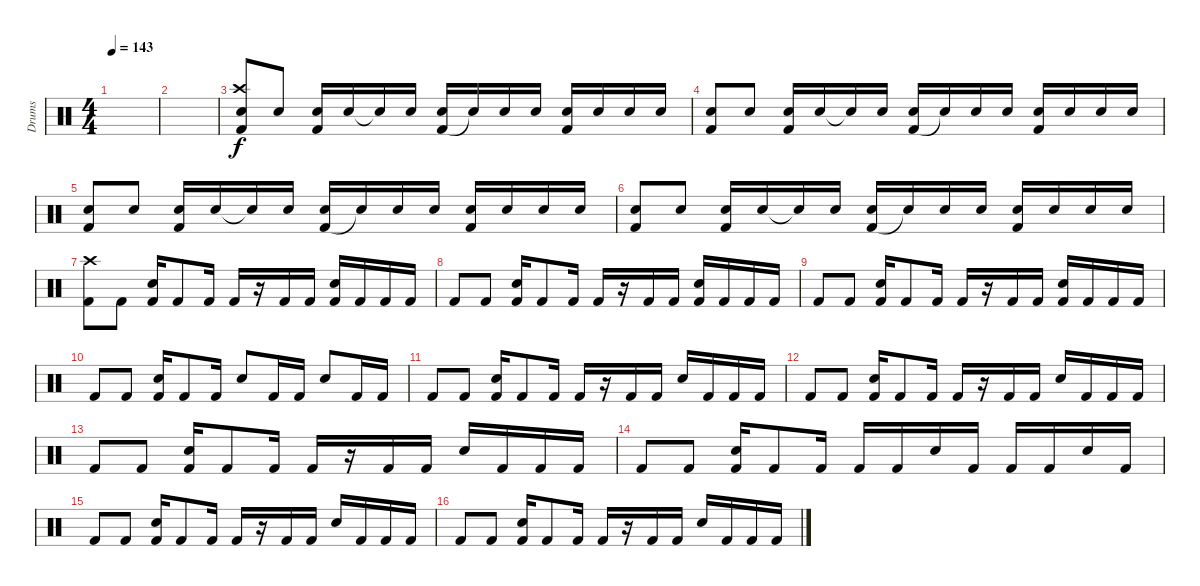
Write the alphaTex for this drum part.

\track ("Drums" "Drums") {instrument percussion}
\staff {score}
\articulation defaults
\ts (4 4)
\tempo 143
\clef neutral
\ks c
|
|
("Kick (hit) 2" "Crash high (hit)" "Snare (hit) 2").8 "Snare (hit) 2".8 ("Kick (hit) 2" "Snare (hit) 2").16 "Snare (hit) 2".16 "Snare (hit) 2"{t}.16 "Snare (hit) 2".16 ("Kick (hit) 2" "Snare (hit) 2").16 "Snare (hit)"{t}.16 "Snare (hit) 2".16 "Snare (hit) 2".16 ("Kick (hit) 2" "Snare (hit) 2").16 "Snare (hit) 2".16 "Snare (hit) 2".16 "Snare (hit) 2".16 |
("Kick (hit) 2" "Snare (hit) 2").8 "Snare (hit) 2".8 ("Kick (hit) 2" "Snare (hit) 2").16 "Snare (hit) 2".16 "Snare (hit) 2"{t}.16 "Snare (hit) 2".16 ("Kick (hit) 2" "Snare (hit) 2").16 "Snare (hit)"{t}.16 "Snare (hit) 2".16 "Snare (hit) 2".16 ("Kick (hit) 2" "Snare (hit) 2").16 "Snare (hit) 2".16 "Snare (hit) 2".16 "Snare (hit) 2".16 |
("Kick (hit) 2" "Snare (hit) 2").8 "Snare (hit) 2".8 ("Kick (hit) 2" "Snare (hit) 2").16 "Snare (hit) 2".16 "Snare (hit) 2"{t}.16 "Snare (hit) 2".16 ("Kick (hit) 2" "Snare (hit) 2").16 "Snare (hit)"{t}.16 "Snare (hit) 2".16 "Snare (hit) 2".16 ("Kick (hit) 2" "Snare (hit) 2").16 "Snare (hit) 2".16 "Snare (hit) 2".16 "Snare (hit) 2".16 |
("Kick (hit) 2" "Snare (hit) 2").8 "Snare (hit) 2".8 ("Kick (hit) 2" "Snare (hit) 2").16 "Snare (hit) 2".16 "Snare (hit) 2"{t}.16 "Snare (hit) 2".16 ("Kick (hit) 2" "Snare (hit) 2").16 "Snare (hit)"{t}.16 "Snare (hit) 2".16 "Snare (hit) 2".16 ("Kick (hit) 2" "Snare (hit) 2").16 "Snare (hit) 2".16 "Snare (hit) 2".16 "Snare (hit) 2".16 |
("Kick (hit) 2" "Crash high (hit)").8 "Kick (hit) 2".8 ("Kick (hit) 2" "Snare (hit) 2").16 "Kick (hit) 2".8 "Kick (hit) 2".16 "Kick (hit) 2".16 r.16 "Kick (hit) 2".16 "Kick (hit) 2".16 ("Kick (hit) 2" "Snare (hit) 2").16 "Kick (hit) 2".16 "Kick (hit) 2".16 "Kick (hit) 2".16 |
"Kick (hit) 2".8 "Kick (hit) 2".8 ("Kick (hit) 2" "Snare (hit) 2").16 "Kick (hit) 2".8 "Kick (hit) 2".16 "Kick (hit) 2".16 r.16 "Kick (hit) 2".16 "Kick (hit) 2".16 ("Kick (hit) 2" "Snare (hit) 2").16 "Kick (hit) 2".16 "Kick (hit) 2".16 "Kick (hit) 2".16 |
"Kick (hit) 2".8 "Kick (hit) 2".8 ("Kick (hit) 2" "Snare (hit) 2").16 "Kick (hit) 2".8 "Kick (hit) 2".16 "Kick (hit) 2".16 r.16 "Kick (hit) 2".16 "Kick (hit) 2".16 ("Kick (hit) 2" "Snare (hit) 2").16 "Kick (hit) 2".16 "Kick (hit) 2".16 "Kick (hit) 2".16 |
"Kick (hit) 2".8 "Kick (hit) 2".8 ("Kick (hit) 2" "Snare (hit) 2").16 "Kick (hit) 2".8 "Kick (hit) 2".16 "Snare (hit) 2".8 "Kick (hit) 2".16 "Kick (hit) 2".16 "Snare (hit) 2".8 "Kick (hit) 2".16 "Kick (hit) 2".16 |
"Kick (hit) 2".8 "Kick (hit) 2".8 ("Kick (hit) 2" "Snare (hit) 2").16 "Kick (hit) 2".8 "Kick (hit) 2".16 "Kick (hit) 2".16 r.16 "Kick (hit) 2".16 "Kick (hit) 2".16 "Snare (hit) 2".16 "Kick (hit) 2".16 "Kick (hit) 2".16 "Kick (hit) 2".16 |
"Kick (hit) 2".8 "Kick (hit) 2".8 ("Kick (hit) 2" "Snare (hit) 2").16 "Kick (hit) 2".8 "Kick (hit) 2".16 "Kick (hit) 2".16 r.16 "Kick (hit) 2".16 "Kick (hit) 2".16 "Snare (hit) 2".16 "Kick (hit) 2".16 "Kick (hit) 2".16 "Kick (hit) 2".16 |
"Kick (hit) 2".8 "Kick (hit) 2".8 ("Kick (hit) 2" "Snare (hit) 2").16 "Kick (hit) 2".8 "Kick (hit) 2".16 "Kick (hit) 2".16 r.16 "Kick (hit) 2".16 "Kick (hit) 2".16 "Snare (hit) 2".16 "Kick (hit) 2".16 "Kick (hit) 2".16 "Kick (hit) 2".16 |
"Kick (hit) 2".8 "Kick (hit) 2".8 ("Kick (hit) 2" "Snare (hit) 2").16 "Kick (hit) 2".8 "Kick (hit) 2".16 "Kick (hit) 2".16 "Kick (hit) 2".16 "Snare (hit) 2".16 "Kick (hit) 2".16 "Kick (hit) 2".16 "Kick (hit) 2".16 "Snare (hit) 2".16 "Kick (hit) 2".16 |
"Kick (hit) 2".8 "Kick (hit) 2".8 ("Kick (hit) 2" "Snare (hit) 2").16 "Kick (hit) 2".8 "Kick (hit) 2".16 "Kick (hit) 2".16 r.16 "Kick (hit) 2".16 "Kick (hit) 2".16 "Snare (hit) 2".16 "Kick (hit) 2".16 "Kick (hit) 2".16 "Kick (hit) 2".16 |
"Kick (hit) 2".8 "Kick (hit) 2".8 ("Kick (hit) 2" "Snare (hit) 2").16 "Kick (hit) 2".8 "Kick (hit) 2".16 "Kick (hit) 2".16 r.16 "Kick (hit) 2".16 "Kick (hit) 2".16 "Snare (hit) 2".16 "Kick (hit) 2".16 "Kick (hit) 2".16 "Kick (hit) 2".16
